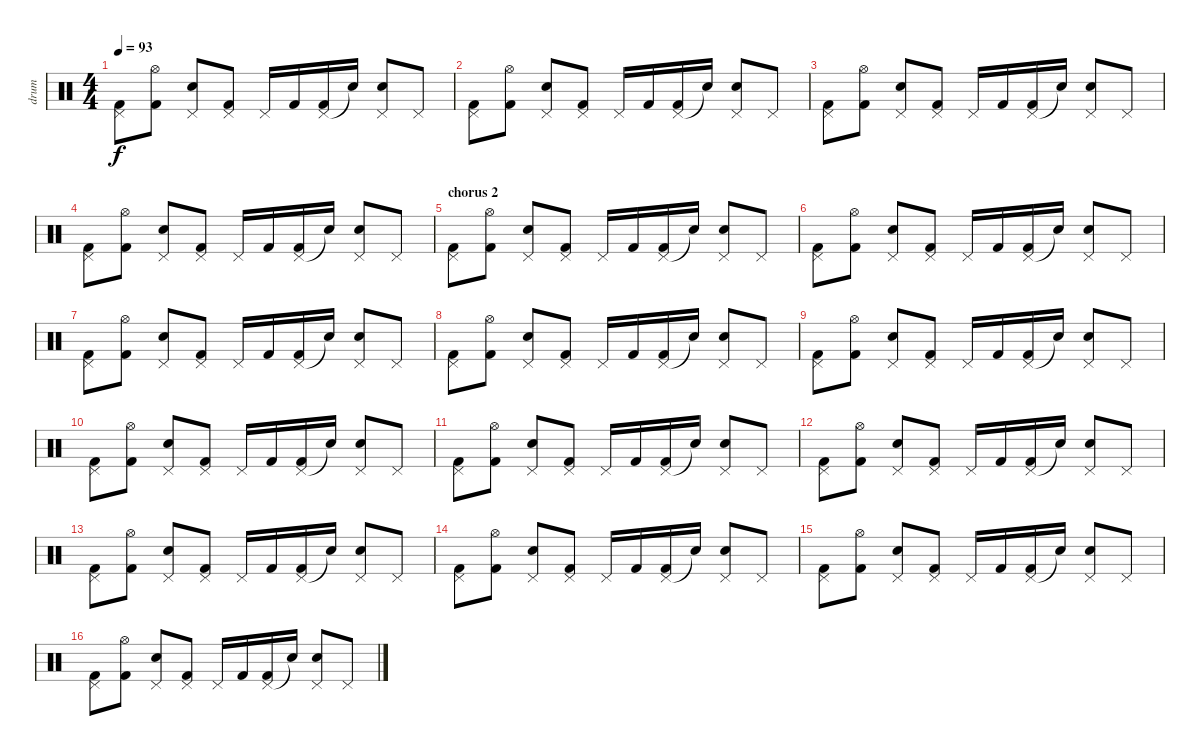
\track ("drum" "drum") {instrument percussion}
\staff {score}
\articulation defaults
\ts (4 4)
\tempo 93
\clef neutral
\ks c
("Pedal Hi-Hat (hit)" "Kick (hit) 2").8{dy f} ("Hi-Hat (open)" "Kick (hit) 2").8 ("Pedal Hi-Hat (hit)" "Snare (hit) 2").8 ("Pedal Hi-Hat (hit)" "Kick (hit) 2").8 "Pedal Hi-Hat (hit)".16 "Kick (hit) 2".16 ("Pedal Hi-Hat (hit)" "Kick (hit) 2").16 "Snare (hit)"{t}.16 ("Pedal Hi-Hat (hit)" "Snare (hit) 2").8 "Pedal Hi-Hat (hit)".8 |
("Pedal Hi-Hat (hit)" "Kick (hit) 2").8 ("Hi-Hat (open)" "Kick (hit) 2").8 ("Pedal Hi-Hat (hit)" "Snare (hit) 2").8 ("Pedal Hi-Hat (hit)" "Kick (hit) 2").8 "Pedal Hi-Hat (hit)".16 "Kick (hit) 2".16 ("Pedal Hi-Hat (hit)" "Kick (hit) 2").16 "Snare (hit)"{t}.16 ("Pedal Hi-Hat (hit)" "Snare (hit) 2").8 "Pedal Hi-Hat (hit)".8 |
("Pedal Hi-Hat (hit)" "Kick (hit) 2").8 ("Hi-Hat (open)" "Kick (hit) 2").8 ("Pedal Hi-Hat (hit)" "Snare (hit) 2").8 ("Pedal Hi-Hat (hit)" "Kick (hit) 2").8 "Pedal Hi-Hat (hit)".16 "Kick (hit) 2".16 ("Pedal Hi-Hat (hit)" "Kick (hit) 2").16 "Snare (hit)"{t}.16 ("Pedal Hi-Hat (hit)" "Snare (hit) 2").8 "Pedal Hi-Hat (hit)".8 |
("Pedal Hi-Hat (hit)" "Kick (hit) 2").8 ("Hi-Hat (open)" "Kick (hit) 2").8 ("Pedal Hi-Hat (hit)" "Snare (hit) 2").8 ("Pedal Hi-Hat (hit)" "Kick (hit) 2").8 "Pedal Hi-Hat (hit)".16 "Kick (hit) 2".16 ("Pedal Hi-Hat (hit)" "Kick (hit) 2").16 "Snare (hit)"{t}.16 ("Pedal Hi-Hat (hit)" "Snare (hit) 2").8 "Pedal Hi-Hat (hit)".8 |
\section ("" "chorus 2")
("Pedal Hi-Hat (hit)" "Kick (hit) 2").8 ("Hi-Hat (open)" "Kick (hit) 2").8 ("Pedal Hi-Hat (hit)" "Snare (hit) 2").8 ("Pedal Hi-Hat (hit)" "Kick (hit) 2").8 "Pedal Hi-Hat (hit)".16 "Kick (hit) 2".16 ("Pedal Hi-Hat (hit)" "Kick (hit) 2").16 "Snare (hit)"{t}.16 ("Pedal Hi-Hat (hit)" "Snare (hit) 2").8 "Pedal Hi-Hat (hit)".8 |
("Pedal Hi-Hat (hit)" "Kick (hit) 2").8 ("Hi-Hat (open)" "Kick (hit) 2").8 ("Pedal Hi-Hat (hit)" "Snare (hit) 2").8 ("Pedal Hi-Hat (hit)" "Kick (hit) 2").8 "Pedal Hi-Hat (hit)".16 "Kick (hit) 2".16 ("Pedal Hi-Hat (hit)" "Kick (hit) 2").16 "Snare (hit)"{t}.16 ("Pedal Hi-Hat (hit)" "Snare (hit) 2").8 "Pedal Hi-Hat (hit)".8 |
("Pedal Hi-Hat (hit)" "Kick (hit) 2").8 ("Hi-Hat (open)" "Kick (hit) 2").8 ("Pedal Hi-Hat (hit)" "Snare (hit) 2").8 ("Pedal Hi-Hat (hit)" "Kick (hit) 2").8 "Pedal Hi-Hat (hit)".16 "Kick (hit) 2".16 ("Pedal Hi-Hat (hit)" "Kick (hit) 2").16 "Snare (hit)"{t}.16 ("Pedal Hi-Hat (hit)" "Snare (hit) 2").8 "Pedal Hi-Hat (hit)".8 |
("Pedal Hi-Hat (hit)" "Kick (hit) 2").8 ("Hi-Hat (open)" "Kick (hit) 2").8 ("Pedal Hi-Hat (hit)" "Snare (hit) 2").8 ("Pedal Hi-Hat (hit)" "Kick (hit) 2").8 "Pedal Hi-Hat (hit)".16 "Kick (hit) 2".16 ("Pedal Hi-Hat (hit)" "Kick (hit) 2").16 "Snare (hit)"{t}.16 ("Pedal Hi-Hat (hit)" "Snare (hit) 2").8 "Pedal Hi-Hat (hit)".8 |
("Pedal Hi-Hat (hit)" "Kick (hit) 2").8 ("Hi-Hat (open)" "Kick (hit) 2").8 ("Pedal Hi-Hat (hit)" "Snare (hit) 2").8 ("Pedal Hi-Hat (hit)" "Kick (hit) 2").8 "Pedal Hi-Hat (hit)".16 "Kick (hit) 2".16 ("Pedal Hi-Hat (hit)" "Kick (hit) 2").16 "Snare (hit)"{t}.16 ("Pedal Hi-Hat (hit)" "Snare (hit) 2").8 "Pedal Hi-Hat (hit)".8 |
("Pedal Hi-Hat (hit)" "Kick (hit) 2").8 ("Hi-Hat (open)" "Kick (hit) 2").8 ("Pedal Hi-Hat (hit)" "Snare (hit) 2").8 ("Pedal Hi-Hat (hit)" "Kick (hit) 2").8 "Pedal Hi-Hat (hit)".16 "Kick (hit) 2".16 ("Pedal Hi-Hat (hit)" "Kick (hit) 2").16 "Snare (hit)"{t}.16 ("Pedal Hi-Hat (hit)" "Snare (hit) 2").8 "Pedal Hi-Hat (hit)".8 |
("Pedal Hi-Hat (hit)" "Kick (hit) 2").8 ("Hi-Hat (open)" "Kick (hit) 2").8 ("Pedal Hi-Hat (hit)" "Snare (hit) 2").8 ("Pedal Hi-Hat (hit)" "Kick (hit) 2").8 "Pedal Hi-Hat (hit)".16 "Kick (hit) 2".16 ("Pedal Hi-Hat (hit)" "Kick (hit) 2").16 "Snare (hit)"{t}.16 ("Pedal Hi-Hat (hit)" "Snare (hit) 2").8 "Pedal Hi-Hat (hit)".8 |
("Pedal Hi-Hat (hit)" "Kick (hit) 2").8 ("Hi-Hat (open)" "Kick (hit) 2").8 ("Pedal Hi-Hat (hit)" "Snare (hit) 2").8 ("Pedal Hi-Hat (hit)" "Kick (hit) 2").8 "Pedal Hi-Hat (hit)".16 "Kick (hit) 2".16 ("Pedal Hi-Hat (hit)" "Kick (hit) 2").16 "Snare (hit)"{t}.16 ("Pedal Hi-Hat (hit)" "Snare (hit) 2").8 "Pedal Hi-Hat (hit)".8 |
("Pedal Hi-Hat (hit)" "Kick (hit) 2").8 ("Hi-Hat (open)" "Kick (hit) 2").8 ("Pedal Hi-Hat (hit)" "Snare (hit) 2").8 ("Pedal Hi-Hat (hit)" "Kick (hit) 2").8 "Pedal Hi-Hat (hit)".16 "Kick (hit) 2".16 ("Pedal Hi-Hat (hit)" "Kick (hit) 2").16 "Snare (hit)"{t}.16 ("Pedal Hi-Hat (hit)" "Snare (hit) 2").8 "Pedal Hi-Hat (hit)".8 |
("Pedal Hi-Hat (hit)" "Kick (hit) 2").8 ("Hi-Hat (open)" "Kick (hit) 2").8 ("Pedal Hi-Hat (hit)" "Snare (hit) 2").8 ("Pedal Hi-Hat (hit)" "Kick (hit) 2").8 "Pedal Hi-Hat (hit)".16 "Kick (hit) 2".16 ("Pedal Hi-Hat (hit)" "Kick (hit) 2").16 "Snare (hit)"{t}.16 ("Pedal Hi-Hat (hit)" "Snare (hit) 2").8 "Pedal Hi-Hat (hit)".8 |
("Pedal Hi-Hat (hit)" "Kick (hit) 2").8 ("Hi-Hat (open)" "Kick (hit) 2").8 ("Pedal Hi-Hat (hit)" "Snare (hit) 2").8 ("Pedal Hi-Hat (hit)" "Kick (hit) 2").8 "Pedal Hi-Hat (hit)".16 "Kick (hit) 2".16 ("Pedal Hi-Hat (hit)" "Kick (hit) 2").16 "Snare (hit)"{t}.16 ("Pedal Hi-Hat (hit)" "Snare (hit) 2").8 "Pedal Hi-Hat (hit)".8 |
("Pedal Hi-Hat (hit)" "Kick (hit) 2").8 ("Hi-Hat (open)" "Kick (hit) 2").8 ("Pedal Hi-Hat (hit)" "Snare (hit) 2").8 ("Pedal Hi-Hat (hit)" "Kick (hit) 2").8 "Pedal Hi-Hat (hit)".16 "Kick (hit) 2".16 ("Pedal Hi-Hat (hit)" "Kick (hit) 2").16 "Snare (hit)"{t}.16 ("Pedal Hi-Hat (hit)" "Snare (hit) 2").8 "Pedal Hi-Hat (hit)".8
